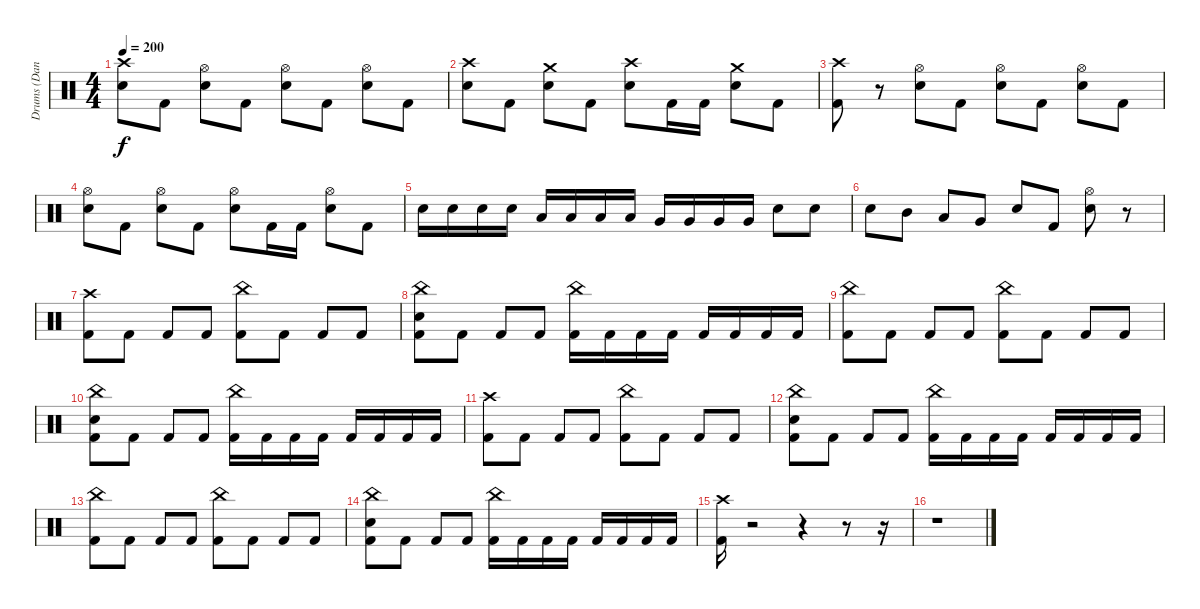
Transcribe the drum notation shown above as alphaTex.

\track ("Drums (Daniel)" "Drums (Dan") {instrument percussion}
\staff {score}
\articulation defaults
\ts (4 4)
\tempo 200
\clef neutral
\ks c
("Crash high (hit)" "Electric Snare (hit)").8{dy f} "Kick (hit) 2".8 ("Hi-Hat (open)" "Electric Snare (hit)").8 "Kick (hit) 2".8 ("Hi-Hat (open)" "Electric Snare (hit)").8 "Kick (hit) 2".8 ("Hi-Hat (open)" "Electric Snare (hit)").8 "Kick (hit) 2".8 |
("Crash high (hit)" "Electric Snare (hit)").8 "Kick (hit) 2".8 ("Crash medium (hit)" "Electric Snare (hit)").8 "Kick (hit) 2".8 ("Crash high (hit)" "Electric Snare (hit)").8 "Kick (hit) 2".16 "Kick (hit) 2".16 ("Crash medium (hit)" "Electric Snare (hit)").8 "Kick (hit) 2".8 |
("Crash high (hit)" "Kick (hit) 2").8 r.8 ("Hi-Hat (open)" "Electric Snare (hit)").8 "Kick (hit) 2".8 ("Hi-Hat (open)" "Electric Snare (hit)").8 "Kick (hit) 2".8 ("Hi-Hat (open)" "Electric Snare (hit)").8 "Kick (hit) 2".8 |
("Hi-Hat (open)" "Electric Snare (hit)").8 "Kick (hit) 2".8 ("Hi-Hat (open)" "Electric Snare (hit)").8 "Kick (hit) 2".8 ("Hi-Hat (open)" "Electric Snare (hit)").8 "Kick (hit) 2".16 "Kick (hit) 2".16 ("Hi-Hat (open)" "Electric Snare (hit)").8 "Kick (hit) 2".8 |
"Electric Snare (hit)".16 "Electric Snare (hit)".16 "Electric Snare (hit)".16 "Electric Snare (hit)".16 "Low Tom (hit)".16 "Low Tom (hit)".16 "Low Tom (hit)".16 "Low Tom (hit)".16 "Very Low Tom (hit)".16 "Very Low Tom (hit)".16 "Very Low Tom (hit)".16 "Very Low Tom (hit)".16 "Electric Snare (hit)".8 "Electric Snare (hit)".8 |
"Electric Snare (hit)".8 "Mid Tom (hit)".8 "Low Tom (hit)".8 "Very Low Tom (hit)".8 "Electric Snare (hit)".8 "Kick (hit) 2".8 ("Hi-Hat (open)" "Electric Snare (hit)").8 r.8 |
("Crash high (hit)" "Kick (hit) 2").8 "Kick (hit) 2".8 "Kick (hit) 2".8 "Kick (hit) 2".8 ("China (hit)" "Kick (hit) 2").8 "Kick (hit) 2".8 "Kick (hit) 2".8 "Kick (hit) 2".8 |
("China (hit)" "Electric Snare (hit)" "Kick (hit) 2").8 "Kick (hit) 2".8 "Kick (hit) 2".8 "Kick (hit) 2".8 ("China (hit)" "Kick (hit) 2").16 "Kick (hit) 2".16 "Kick (hit) 2".16 "Kick (hit) 2".16 "Kick (hit) 2".16 "Kick (hit) 2".16 "Kick (hit) 2".16 "Kick (hit) 2".16 |
("China (hit)" "Kick (hit) 2").8 "Kick (hit) 2".8 "Kick (hit) 2".8 "Kick (hit) 2".8 ("China (hit)" "Kick (hit) 2").8 "Kick (hit) 2".8 "Kick (hit) 2".8 "Kick (hit) 2".8 |
("China (hit)" "Electric Snare (hit)" "Kick (hit) 2").8 "Kick (hit) 2".8 "Kick (hit) 2".8 "Kick (hit) 2".8 ("China (hit)" "Kick (hit) 2").16 "Kick (hit) 2".16 "Kick (hit) 2".16 "Kick (hit) 2".16 "Kick (hit) 2".16 "Kick (hit) 2".16 "Kick (hit) 2".16 "Kick (hit) 2".16 |
("Crash high (hit)" "Kick (hit) 2").8 "Kick (hit) 2".8 "Kick (hit) 2".8 "Kick (hit) 2".8 ("China (hit)" "Kick (hit) 2").8 "Kick (hit) 2".8 "Kick (hit) 2".8 "Kick (hit) 2".8 |
("China (hit)" "Electric Snare (hit)" "Kick (hit) 2").8 "Kick (hit) 2".8 "Kick (hit) 2".8 "Kick (hit) 2".8 ("China (hit)" "Kick (hit) 2").16 "Kick (hit) 2".16 "Kick (hit) 2".16 "Kick (hit) 2".16 "Kick (hit) 2".16 "Kick (hit) 2".16 "Kick (hit) 2".16 "Kick (hit) 2".16 |
("China (hit)" "Kick (hit) 2").8 "Kick (hit) 2".8 "Kick (hit) 2".8 "Kick (hit) 2".8 ("China (hit)" "Kick (hit) 2").8 "Kick (hit) 2".8 "Kick (hit) 2".8 "Kick (hit) 2".8 |
("China (hit)" "Electric Snare (hit)" "Kick (hit) 2").8 "Kick (hit) 2".8 "Kick (hit) 2".8 "Kick (hit) 2".8 ("China (hit)" "Kick (hit) 2").16 "Kick (hit) 2".16 "Kick (hit) 2".16 "Kick (hit) 2".16 "Kick (hit) 2".16 "Kick (hit) 2".16 "Kick (hit) 2".16 "Kick (hit) 2".16 |
("Crash high (hit)" "Kick (hit) 2").16 r.2 r.4 r.8 r.16 |
r.1
